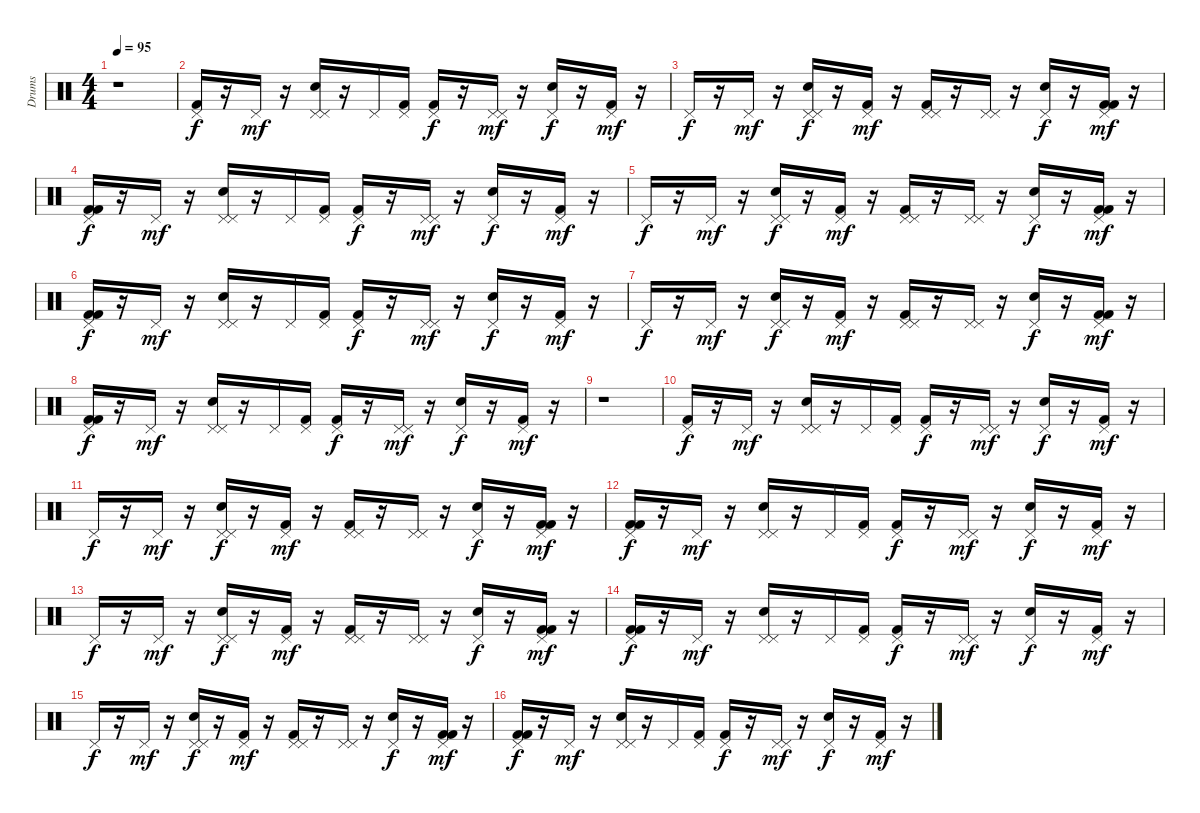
\track ("Drums" "Drums") {instrument percussion}
\staff {score}
\articulation defaults
\ts (4 4)
\tempo 95
\clef neutral
\ks c
r.1{dy mf} |
("Kick (hit) 2" "Pedal Hi-Hat (hit)").16{dy f} r.16 "Pedal Hi-Hat (hit)".16{dy mf} r.16 ("Pedal Hi-Hat (hit)" "Pedal Hi-Hat (hit)" "Snare (hit) 2").16 r.16 "Pedal Hi-Hat (hit)".16 ("Kick (hit) 2" "Pedal Hi-Hat (hit)").16 ("Kick (hit) 2" "Pedal Hi-Hat (hit)").16{dy f} r.16 ("Pedal Hi-Hat (hit)" "Pedal Hi-Hat (hit)").16{dy mf} r.16 ("Pedal Hi-Hat (hit)" "Snare (hit) 2").16{dy f} r.16 ("Kick (hit) 2" "Pedal Hi-Hat (hit)").16{dy mf} r.16 |
"Pedal Hi-Hat (hit)".16{dy f} r.16 "Pedal Hi-Hat (hit)".16{dy mf} r.16 ("Pedal Hi-Hat (hit)" "Pedal Hi-Hat (hit)" "Snare (hit) 2").16{dy f} r.16 ("Kick (hit) 2" "Pedal Hi-Hat (hit)").16{dy mf} r.16 ("Pedal Hi-Hat (hit)" "Kick (hit) 2" "Pedal Hi-Hat (hit)").16 r.16 ("Pedal Hi-Hat (hit)" "Pedal Hi-Hat (hit)").16 r.16 ("Pedal Hi-Hat (hit)" "Snare (hit) 2").16{dy f} r.16 ("Kick (hit) 2" "Kick (hit) 2" "Pedal Hi-Hat (hit)").16{dy mf} r.16 |
("Kick (hit) 2" "Kick (hit) 2" "Pedal Hi-Hat (hit)").16{dy f} r.16 "Pedal Hi-Hat (hit)".16{dy mf} r.16 ("Pedal Hi-Hat (hit)" "Pedal Hi-Hat (hit)" "Snare (hit) 2").16 r.16 "Pedal Hi-Hat (hit)".16 ("Kick (hit) 2" "Pedal Hi-Hat (hit)").16 ("Kick (hit) 2" "Pedal Hi-Hat (hit)").16{dy f} r.16 ("Pedal Hi-Hat (hit)" "Pedal Hi-Hat (hit)").16{dy mf} r.16 ("Pedal Hi-Hat (hit)" "Snare (hit) 2").16{dy f} r.16 ("Kick (hit) 2" "Pedal Hi-Hat (hit)").16{dy mf} r.16 |
"Pedal Hi-Hat (hit)".16{dy f} r.16 "Pedal Hi-Hat (hit)".16{dy mf} r.16 ("Pedal Hi-Hat (hit)" "Pedal Hi-Hat (hit)" "Snare (hit) 2").16{dy f} r.16 ("Kick (hit) 2" "Pedal Hi-Hat (hit)").16{dy mf} r.16 ("Pedal Hi-Hat (hit)" "Kick (hit) 2" "Pedal Hi-Hat (hit)").16 r.16 ("Pedal Hi-Hat (hit)" "Pedal Hi-Hat (hit)").16 r.16 ("Pedal Hi-Hat (hit)" "Snare (hit) 2").16{dy f} r.16 ("Kick (hit) 2" "Kick (hit) 2" "Pedal Hi-Hat (hit)").16{dy mf} r.16 |
("Kick (hit) 2" "Kick (hit) 2" "Pedal Hi-Hat (hit)").16{dy f} r.16 "Pedal Hi-Hat (hit)".16{dy mf} r.16 ("Pedal Hi-Hat (hit)" "Pedal Hi-Hat (hit)" "Snare (hit) 2").16 r.16 "Pedal Hi-Hat (hit)".16 ("Kick (hit) 2" "Pedal Hi-Hat (hit)").16 ("Kick (hit) 2" "Pedal Hi-Hat (hit)").16{dy f} r.16 ("Pedal Hi-Hat (hit)" "Pedal Hi-Hat (hit)").16{dy mf} r.16 ("Pedal Hi-Hat (hit)" "Snare (hit) 2").16{dy f} r.16 ("Kick (hit) 2" "Pedal Hi-Hat (hit)").16{dy mf} r.16 |
"Pedal Hi-Hat (hit)".16{dy f} r.16 "Pedal Hi-Hat (hit)".16{dy mf} r.16 ("Pedal Hi-Hat (hit)" "Pedal Hi-Hat (hit)" "Snare (hit) 2").16{dy f} r.16 ("Kick (hit) 2" "Pedal Hi-Hat (hit)").16{dy mf} r.16 ("Pedal Hi-Hat (hit)" "Kick (hit) 2" "Pedal Hi-Hat (hit)").16 r.16 ("Pedal Hi-Hat (hit)" "Pedal Hi-Hat (hit)").16 r.16 ("Pedal Hi-Hat (hit)" "Snare (hit) 2").16{dy f} r.16 ("Kick (hit) 2" "Kick (hit) 2" "Pedal Hi-Hat (hit)").16{dy mf} r.16 |
("Kick (hit) 2" "Kick (hit) 2" "Pedal Hi-Hat (hit)").16{dy f} r.16 "Pedal Hi-Hat (hit)".16{dy mf} r.16 ("Pedal Hi-Hat (hit)" "Pedal Hi-Hat (hit)" "Snare (hit) 2").16 r.16 "Pedal Hi-Hat (hit)".16 ("Kick (hit) 2" "Pedal Hi-Hat (hit)").16 ("Kick (hit) 2" "Pedal Hi-Hat (hit)").16{dy f} r.16 ("Pedal Hi-Hat (hit)" "Pedal Hi-Hat (hit)").16{dy mf} r.16 ("Pedal Hi-Hat (hit)" "Snare (hit) 2").16{dy f} r.16 ("Kick (hit) 2" "Pedal Hi-Hat (hit)").16{dy mf} r.16 |
r.1 |
("Kick (hit) 2" "Pedal Hi-Hat (hit)").16{dy f} r.16 "Pedal Hi-Hat (hit)".16{dy mf} r.16 ("Pedal Hi-Hat (hit)" "Pedal Hi-Hat (hit)" "Snare (hit) 2").16 r.16 "Pedal Hi-Hat (hit)".16 ("Kick (hit) 2" "Pedal Hi-Hat (hit)").16 ("Kick (hit) 2" "Pedal Hi-Hat (hit)").16{dy f} r.16 ("Pedal Hi-Hat (hit)" "Pedal Hi-Hat (hit)").16{dy mf} r.16 ("Pedal Hi-Hat (hit)" "Snare (hit) 2").16{dy f} r.16 ("Kick (hit) 2" "Pedal Hi-Hat (hit)").16{dy mf} r.16 |
"Pedal Hi-Hat (hit)".16{dy f} r.16 "Pedal Hi-Hat (hit)".16{dy mf} r.16 ("Pedal Hi-Hat (hit)" "Pedal Hi-Hat (hit)" "Snare (hit) 2").16{dy f} r.16 ("Kick (hit) 2" "Pedal Hi-Hat (hit)").16{dy mf} r.16 ("Pedal Hi-Hat (hit)" "Kick (hit) 2" "Pedal Hi-Hat (hit)").16 r.16 ("Pedal Hi-Hat (hit)" "Pedal Hi-Hat (hit)").16 r.16 ("Pedal Hi-Hat (hit)" "Snare (hit) 2").16{dy f} r.16 ("Kick (hit) 2" "Kick (hit) 2" "Pedal Hi-Hat (hit)").16{dy mf} r.16 |
("Kick (hit) 2" "Kick (hit) 2" "Pedal Hi-Hat (hit)").16{dy f} r.16 "Pedal Hi-Hat (hit)".16{dy mf} r.16 ("Pedal Hi-Hat (hit)" "Pedal Hi-Hat (hit)" "Snare (hit) 2").16 r.16 "Pedal Hi-Hat (hit)".16 ("Kick (hit) 2" "Pedal Hi-Hat (hit)").16 ("Kick (hit) 2" "Pedal Hi-Hat (hit)").16{dy f} r.16 ("Pedal Hi-Hat (hit)" "Pedal Hi-Hat (hit)").16{dy mf} r.16 ("Pedal Hi-Hat (hit)" "Snare (hit) 2").16{dy f} r.16 ("Kick (hit) 2" "Pedal Hi-Hat (hit)").16{dy mf} r.16 |
"Pedal Hi-Hat (hit)".16{dy f} r.16 "Pedal Hi-Hat (hit)".16{dy mf} r.16 ("Pedal Hi-Hat (hit)" "Pedal Hi-Hat (hit)" "Snare (hit) 2").16{dy f} r.16 ("Kick (hit) 2" "Pedal Hi-Hat (hit)").16{dy mf} r.16 ("Pedal Hi-Hat (hit)" "Kick (hit) 2" "Pedal Hi-Hat (hit)").16 r.16 ("Pedal Hi-Hat (hit)" "Pedal Hi-Hat (hit)").16 r.16 ("Pedal Hi-Hat (hit)" "Snare (hit) 2").16{dy f} r.16 ("Kick (hit) 2" "Kick (hit) 2" "Pedal Hi-Hat (hit)").16{dy mf} r.16 |
("Kick (hit) 2" "Kick (hit) 2" "Pedal Hi-Hat (hit)").16{dy f} r.16 "Pedal Hi-Hat (hit)".16{dy mf} r.16 ("Pedal Hi-Hat (hit)" "Pedal Hi-Hat (hit)" "Snare (hit) 2").16 r.16 "Pedal Hi-Hat (hit)".16 ("Kick (hit) 2" "Pedal Hi-Hat (hit)").16 ("Kick (hit) 2" "Pedal Hi-Hat (hit)").16{dy f} r.16 ("Pedal Hi-Hat (hit)" "Pedal Hi-Hat (hit)").16{dy mf} r.16 ("Pedal Hi-Hat (hit)" "Snare (hit) 2").16{dy f} r.16 ("Kick (hit) 2" "Pedal Hi-Hat (hit)").16{dy mf} r.16 |
"Pedal Hi-Hat (hit)".16{dy f} r.16 "Pedal Hi-Hat (hit)".16{dy mf} r.16 ("Pedal Hi-Hat (hit)" "Pedal Hi-Hat (hit)" "Snare (hit) 2").16{dy f} r.16 ("Kick (hit) 2" "Pedal Hi-Hat (hit)").16{dy mf} r.16 ("Pedal Hi-Hat (hit)" "Kick (hit) 2" "Pedal Hi-Hat (hit)").16 r.16 ("Pedal Hi-Hat (hit)" "Pedal Hi-Hat (hit)").16 r.16 ("Pedal Hi-Hat (hit)" "Snare (hit) 2").16{dy f} r.16 ("Kick (hit) 2" "Kick (hit) 2" "Pedal Hi-Hat (hit)").16{dy mf} r.16 |
("Kick (hit) 2" "Kick (hit) 2" "Pedal Hi-Hat (hit)").16{dy f} r.16 "Pedal Hi-Hat (hit)".16{dy mf} r.16 ("Pedal Hi-Hat (hit)" "Pedal Hi-Hat (hit)" "Snare (hit) 2").16 r.16 "Pedal Hi-Hat (hit)".16 ("Kick (hit) 2" "Pedal Hi-Hat (hit)").16 ("Kick (hit) 2" "Pedal Hi-Hat (hit)").16{dy f} r.16 ("Pedal Hi-Hat (hit)" "Pedal Hi-Hat (hit)").16{dy mf} r.16 ("Pedal Hi-Hat (hit)" "Snare (hit) 2").16{dy f} r.16 ("Kick (hit) 2" "Pedal Hi-Hat (hit)").16{dy mf} r.16
